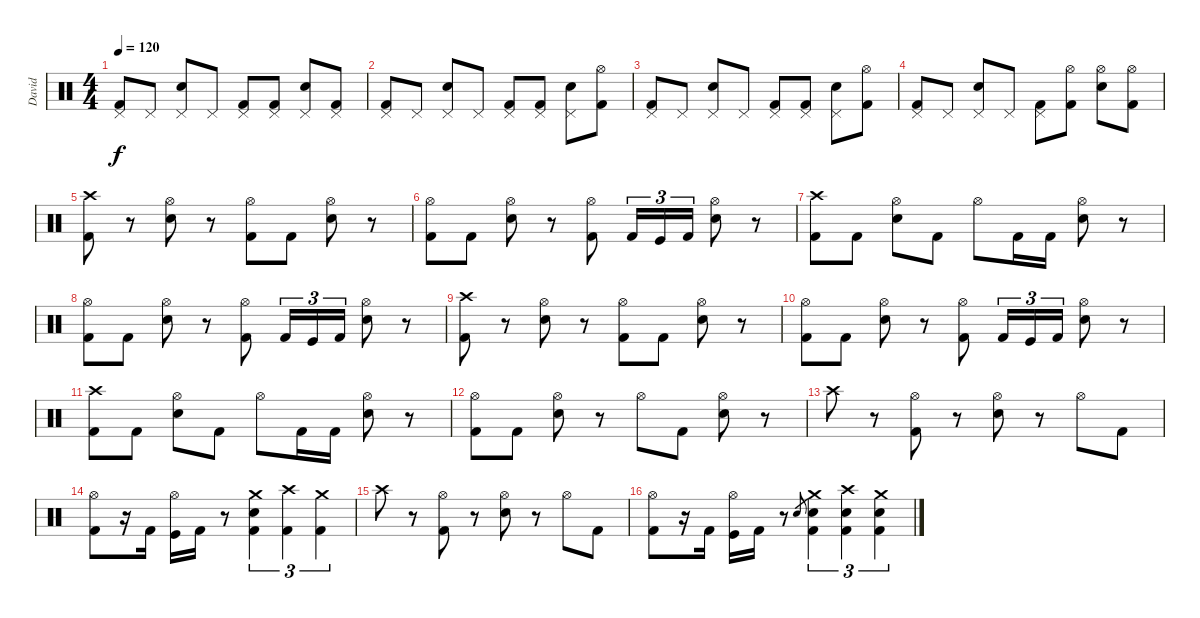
\track ("David" "David") {instrument percussion}
\staff {score}
\articulation defaults
\ts (4 4)
\tempo 120
\clef neutral
\ks c
("Pedal Hi-Hat (hit)" "Kick (hit) 2").8{dy f} "Pedal Hi-Hat (hit)".8 ("Pedal Hi-Hat (hit)" "Snare (hit) 2").8 "Pedal Hi-Hat (hit)".8 ("Pedal Hi-Hat (hit)" "Kick (hit) 2").8 ("Pedal Hi-Hat (hit)" "Kick (hit) 2").8 ("Pedal Hi-Hat (hit)" "Snare (hit) 2").8 ("Pedal Hi-Hat (hit)" "Kick (hit) 2").8 |
("Pedal Hi-Hat (hit)" "Kick (hit) 2").8 "Pedal Hi-Hat (hit)".8 ("Pedal Hi-Hat (hit)" "Snare (hit) 2").8 "Pedal Hi-Hat (hit)".8 ("Pedal Hi-Hat (hit)" "Kick (hit) 2").8 ("Pedal Hi-Hat (hit)" "Kick (hit) 2").8 ("Pedal Hi-Hat (hit)" "Snare (hit) 2").8 ("Hi-Hat (open)" "Kick (hit) 2").8 |
("Pedal Hi-Hat (hit)" "Kick (hit) 2").8 "Pedal Hi-Hat (hit)".8 ("Pedal Hi-Hat (hit)" "Snare (hit) 2").8 "Pedal Hi-Hat (hit)".8 ("Pedal Hi-Hat (hit)" "Kick (hit) 2").8 ("Pedal Hi-Hat (hit)" "Kick (hit) 2").8 ("Pedal Hi-Hat (hit)" "Snare (hit) 2").8 ("Hi-Hat (open)" "Kick (hit) 2").8 |
("Pedal Hi-Hat (hit)" "Kick (hit) 2").8 "Pedal Hi-Hat (hit)".8 ("Pedal Hi-Hat (hit)" "Snare (hit) 2").8 "Pedal Hi-Hat (hit)".8 ("Pedal Hi-Hat (hit)" "Kick (hit) 2").8 ("Hi-Hat (open)" "Kick (hit) 2").8 ("Hi-Hat (open)" "Snare (hit) 2").8 ("Hi-Hat (open)" "Kick (hit) 2").8 |
("Crash high (hit)" "Kick (hit) 2").8 r.8 ("Hi-Hat (open)" "Snare (hit) 2").8 r.8 ("Hi-Hat (open)" "Kick (hit) 2").8 "Kick (hit) 2".8 ("Hi-Hat (open)" "Snare (hit) 2").8 r.8 |
("Hi-Hat (open)" "Kick (hit) 2").8 "Kick (hit) 2".8 ("Hi-Hat (open)" "Snare (hit) 2").8 r.8 ("Hi-Hat (open)" "Kick (hit) 2").8 "Kick (hit) 2".16{tu (3 2)} "Kick (hit)".16{tu (3 2)} "Kick (hit) 2".16{tu (3 2)} ("Hi-Hat (open)" "Snare (hit) 2").8 r.8 |
("Crash high (hit)" "Kick (hit) 2").8 "Kick (hit) 2".8 ("Hi-Hat (open)" "Snare (hit) 2").8 "Kick (hit) 2".8 "Hi-Hat (open)".8 "Kick (hit) 2".16 "Kick (hit) 2".16 ("Hi-Hat (open)" "Snare (hit) 2").8 r.8 |
("Hi-Hat (open)" "Kick (hit) 2").8 "Kick (hit) 2".8 ("Hi-Hat (open)" "Snare (hit) 2").8 r.8 ("Hi-Hat (open)" "Kick (hit) 2").8 "Kick (hit) 2".16{tu (3 2)} "Kick (hit)".16{tu (3 2)} "Kick (hit) 2".16{tu (3 2)} ("Hi-Hat (open)" "Snare (hit) 2").8 r.8 |
("Crash high (hit)" "Kick (hit) 2").8 r.8 ("Hi-Hat (open)" "Snare (hit) 2").8 r.8 ("Hi-Hat (open)" "Kick (hit) 2").8 "Kick (hit) 2".8 ("Hi-Hat (open)" "Snare (hit) 2").8 r.8 |
("Hi-Hat (open)" "Kick (hit) 2").8 "Kick (hit) 2".8 ("Hi-Hat (open)" "Snare (hit) 2").8 r.8 ("Hi-Hat (open)" "Kick (hit) 2").8 "Kick (hit) 2".16{tu (3 2)} "Kick (hit)".16{tu (3 2)} "Kick (hit) 2".16{tu (3 2)} ("Hi-Hat (open)" "Snare (hit) 2").8 r.8 |
("Crash high (hit)" "Kick (hit) 2").8 "Kick (hit) 2".8 ("Hi-Hat (open)" "Snare (hit) 2").8 "Kick (hit) 2".8 "Hi-Hat (open)".8 "Kick (hit) 2".16 "Kick (hit) 2".16 ("Hi-Hat (open)" "Snare (hit) 2").8 r.8 |
("Hi-Hat (open)" "Kick (hit) 2").8 "Kick (hit) 2".8 ("Hi-Hat (open)" "Snare (hit) 2").8 r.8 "Hi-Hat (open)".8 "Kick (hit) 2".8 ("Hi-Hat (open)" "Snare (hit) 2").8 r.8 |
"Crash high (hit)".8 r.8 ("Hi-Hat (open)" "Kick (hit) 2").8 r.8 ("Hi-Hat (open)" "Snare (hit) 2").8 r.8 "Hi-Hat (open)".8 "Kick (hit) 2".8 |
("Hi-Hat (open)" "Kick (hit) 2").8 r.16 "Kick (hit) 2".16 ("Hi-Hat (open)" "Kick (hit)").16 "Kick (hit) 2".16 r.8 ("Crash medium (hit)" "Snare (hit) 2" "Kick (hit) 2").4{tu (3 2)} ("Crash high (hit)" "Kick (hit) 2").4{tu (3 2)} ("Crash medium (hit)" "Kick (hit) 2").4{tu (3 2)} |
"Crash high (hit)".8 r.8 ("Hi-Hat (open)" "Kick (hit) 2").8 r.8 ("Hi-Hat (open)" "Snare (hit) 2").8 r.8 "Hi-Hat (open)".8 "Kick (hit) 2".8 |
("Hi-Hat (open)" "Kick (hit) 2").8 r.16 "Kick (hit) 2".16 ("Hi-Hat (open)" "Kick (hit)").16 "Kick (hit) 2".16 r.8 "Snare (hit) 2".8{gr} ("Crash medium (hit)" "Snare (hit) 2" "Kick (hit) 2").4{tu (3 2)} ("Crash high (hit)" "Snare (hit) 2" "Kick (hit) 2").4{tu (3 2)} ("Crash medium (hit)" "Snare (hit) 2" "Kick (hit) 2").4{tu (3 2)}
